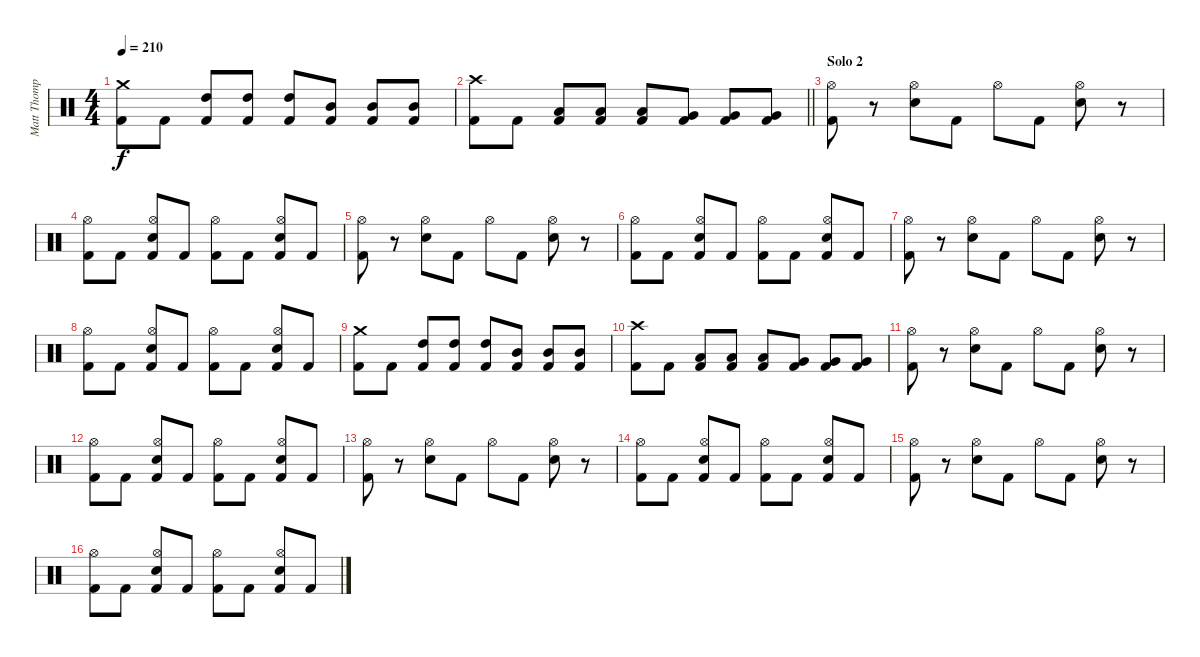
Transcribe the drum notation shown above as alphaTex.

\track ("Matt Thompson" "Matt Thomp") {instrument percussion}
\staff {score}
\articulation defaults
\ts (4 4)
\tempo 210
\clef neutral
\ks c
("Crash medium (hit)" "Kick (hit) 2").8{dy f} "Kick (hit) 2".8 ("High Tom (hit)" "Kick (hit) 2").8 ("High Tom (hit)" "Kick (hit) 2").8 ("High Tom (hit)" "Kick (hit) 2").8 ("Mid Tom (hit)" "Kick (hit) 2").8 ("Mid Tom (hit)" "Kick (hit) 2").8 ("Mid Tom (hit)" "Kick (hit) 2").8 |
\barLineRight lightlight
("Crash high (hit)" "Kick (hit) 2").8 "Kick (hit) 2".8 ("Low Tom (hit)" "Kick (hit) 2").8 ("Low Tom (hit)" "Kick (hit) 2").8 ("Low Tom (hit)" "Kick (hit) 2").8 ("Very Low Tom (hit)" "Kick (hit) 2").8 ("Very Low Tom (hit)" "Kick (hit) 2").8 ("Very Low Tom (hit)" "Kick (hit) 2").8 |
\section ("" "Solo 2")
("Hi-Hat (open)" "Kick (hit) 2").8 r.8 ("Hi-Hat (open)" "Electric Snare (hit)").8 "Kick (hit) 2".8 "Hi-Hat (open)".8 "Kick (hit) 2".8 ("Hi-Hat (open)" "Electric Snare (hit)").8 r.8 |
("Hi-Hat (open)" "Kick (hit) 2").8 "Kick (hit) 2".8 ("Hi-Hat (open)" "Electric Snare (hit)" "Kick (hit) 2").8 "Kick (hit) 2".8 ("Hi-Hat (open)" "Kick (hit) 2").8 "Kick (hit) 2".8 ("Hi-Hat (open)" "Electric Snare (hit)" "Kick (hit) 2").8 "Kick (hit) 2".8 |
("Hi-Hat (open)" "Kick (hit) 2").8 r.8 ("Hi-Hat (open)" "Electric Snare (hit)").8 "Kick (hit) 2".8 "Hi-Hat (open)".8 "Kick (hit) 2".8 ("Hi-Hat (open)" "Electric Snare (hit)").8 r.8 |
("Hi-Hat (open)" "Kick (hit) 2").8 "Kick (hit) 2".8 ("Hi-Hat (open)" "Electric Snare (hit)" "Kick (hit) 2").8 "Kick (hit) 2".8 ("Hi-Hat (open)" "Kick (hit) 2").8 "Kick (hit) 2".8 ("Hi-Hat (open)" "Electric Snare (hit)" "Kick (hit) 2").8 "Kick (hit) 2".8 |
("Hi-Hat (open)" "Kick (hit) 2").8 r.8 ("Hi-Hat (open)" "Electric Snare (hit)").8 "Kick (hit) 2".8 "Hi-Hat (open)".8 "Kick (hit) 2".8 ("Hi-Hat (open)" "Electric Snare (hit)").8 r.8 |
("Hi-Hat (open)" "Kick (hit) 2").8 "Kick (hit) 2".8 ("Hi-Hat (open)" "Electric Snare (hit)" "Kick (hit) 2").8 "Kick (hit) 2".8 ("Hi-Hat (open)" "Kick (hit) 2").8 "Kick (hit) 2".8 ("Hi-Hat (open)" "Electric Snare (hit)" "Kick (hit) 2").8 "Kick (hit) 2".8 |
("Crash medium (hit)" "Kick (hit) 2").8 "Kick (hit) 2".8 ("High Tom (hit)" "Kick (hit) 2").8 ("High Tom (hit)" "Kick (hit) 2").8 ("High Tom (hit)" "Kick (hit) 2").8 ("Mid Tom (hit)" "Kick (hit) 2").8 ("Mid Tom (hit)" "Kick (hit) 2").8 ("Mid Tom (hit)" "Kick (hit) 2").8 |
("Crash high (hit)" "Kick (hit) 2").8 "Kick (hit) 2".8 ("Low Tom (hit)" "Kick (hit) 2").8 ("Low Tom (hit)" "Kick (hit) 2").8 ("Low Tom (hit)" "Kick (hit) 2").8 ("Very Low Tom (hit)" "Kick (hit) 2").8 ("Very Low Tom (hit)" "Kick (hit) 2").8 ("Very Low Tom (hit)" "Kick (hit) 2").8 |
("Hi-Hat (open)" "Kick (hit) 2").8 r.8 ("Hi-Hat (open)" "Electric Snare (hit)").8 "Kick (hit) 2".8 "Hi-Hat (open)".8 "Kick (hit) 2".8 ("Hi-Hat (open)" "Electric Snare (hit)").8 r.8 |
("Hi-Hat (open)" "Kick (hit) 2").8 "Kick (hit) 2".8 ("Hi-Hat (open)" "Electric Snare (hit)" "Kick (hit) 2").8 "Kick (hit) 2".8 ("Hi-Hat (open)" "Kick (hit) 2").8 "Kick (hit) 2".8 ("Hi-Hat (open)" "Electric Snare (hit)" "Kick (hit) 2").8 "Kick (hit) 2".8 |
("Hi-Hat (open)" "Kick (hit) 2").8 r.8 ("Hi-Hat (open)" "Electric Snare (hit)").8 "Kick (hit) 2".8 "Hi-Hat (open)".8 "Kick (hit) 2".8 ("Hi-Hat (open)" "Electric Snare (hit)").8 r.8 |
("Hi-Hat (open)" "Kick (hit) 2").8 "Kick (hit) 2".8 ("Hi-Hat (open)" "Electric Snare (hit)" "Kick (hit) 2").8 "Kick (hit) 2".8 ("Hi-Hat (open)" "Kick (hit) 2").8 "Kick (hit) 2".8 ("Hi-Hat (open)" "Electric Snare (hit)" "Kick (hit) 2").8 "Kick (hit) 2".8 |
("Hi-Hat (open)" "Kick (hit) 2").8 r.8 ("Hi-Hat (open)" "Electric Snare (hit)").8 "Kick (hit) 2".8 "Hi-Hat (open)".8 "Kick (hit) 2".8 ("Hi-Hat (open)" "Electric Snare (hit)").8 r.8 |
("Hi-Hat (open)" "Kick (hit) 2").8 "Kick (hit) 2".8 ("Hi-Hat (open)" "Electric Snare (hit)" "Kick (hit) 2").8 "Kick (hit) 2".8 ("Hi-Hat (open)" "Kick (hit) 2").8 "Kick (hit) 2".8 ("Hi-Hat (open)" "Electric Snare (hit)" "Kick (hit) 2").8 "Kick (hit) 2".8
